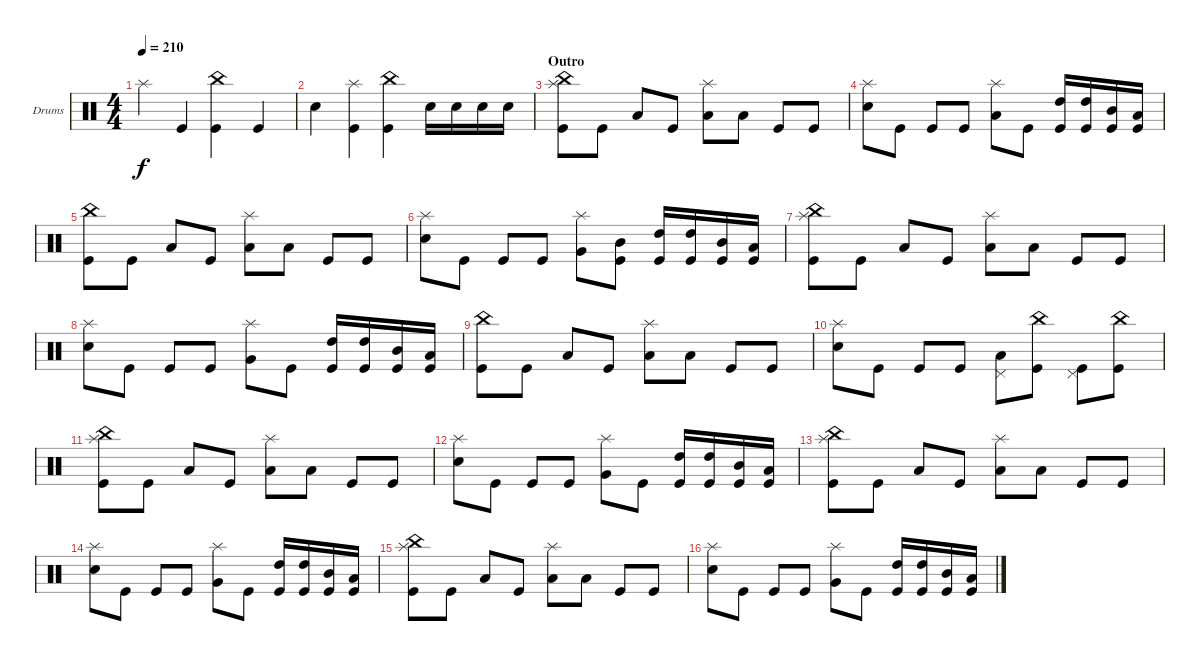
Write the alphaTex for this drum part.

\defaultSystemsLayout 4
\bracketExtendMode groupsimilarinstruments
\firstSystemTrackNameOrientation horizontal
\otherSystemsTrackNameOrientation horizontal
\track ("Drumkit" "Drums") {instrument percussion}
\staff {score}
\articulation defaults
\ts (4 4)
\tempo 210
\clef neutral
\ks c "Splash (hit)".4{dy f} "Kick (hit)".4
("Kick (hit)" "China (hit)").4 "Kick (hit)".4 |
"Snare (hit) 2".4 ("Kick (hit)" "Splash (hit)").4 ("Kick (hit)" "China (hit)").4 "Snare (hit) 2".16 "Snare (hit) 2".16 "Snare (hit) 2".16 "Snare (hit) 2".16 |
\section ("" "Outro")
("Kick (hit)" "Splash (hit)" "China (hit)").8 "Kick (hit)".8 "Low Tom (hit)".8 "Kick (hit)".8 ("Splash (hit)" "Low Tom (hit)").8 "Low Tom (hit)".8 "Kick (hit)".8 "Kick (hit)".8 |
("Snare (hit) 2" "Splash (hit)").8 "Kick (hit)".8 "Kick (hit)".8 "Kick (hit)".8 ("Splash (hit)" "Low Tom (hit)").8 "Kick (hit)".8 ("High Tom (hit)" "Kick (hit)").16 ("High Tom (hit)" "Kick (hit)").16 ("Mid Tom (hit)" "Kick (hit)").16 ("Low Tom (hit)" "Kick (hit)").16 |
("China (hit)" "Kick (hit)").8 "Kick (hit)".8 "Low Tom (hit)".8 "Kick (hit)".8 ("Splash (hit)" "Low Tom (hit)").8 "Low Tom (hit)".8 "Kick (hit)".8 "Kick (hit)".8 |
("Splash (hit)" "Snare (hit) 2").8 "Kick (hit)".8 "Kick (hit)".8 "Kick (hit)".8 ("Splash (hit)" "Very Low Tom (hit)").8 ("Kick (hit)" "Mid Tom (hit)").8 ("High Tom (hit)" "Kick (hit)").16 ("High Tom (hit)" "Kick (hit)").16 ("Mid Tom (hit)" "Kick (hit)").16 ("Low Tom (hit)" "Kick (hit)").16 |
("Kick (hit)" "Splash (hit)" "China (hit)").8 "Kick (hit)".8 "Low Tom (hit)".8 "Kick (hit)".8 ("Splash (hit)" "Low Tom (hit)").8 "Low Tom (hit)".8 "Kick (hit)".8 "Kick (hit)".8 |
("Snare (hit) 2" "Splash (hit)").8 "Kick (hit)".8 "Kick (hit)".8 "Kick (hit)".8 ("Splash (hit)" "Very Low Tom (hit)").8 "Kick (hit)".8 ("High Tom (hit)" "Kick (hit)").16 ("High Tom (hit)" "Kick (hit)").16 ("Mid Tom (hit)" "Kick (hit)").16 ("Low Tom (hit)" "Kick (hit)").16 |
("China (hit)" "Kick (hit)").8 "Kick (hit)".8 "Low Tom (hit)".8 "Kick (hit)".8 ("Splash (hit)" "Low Tom (hit)").8 "Low Tom (hit)".8 "Kick (hit)".8 "Kick (hit)".8 |
("Splash (hit)" "Snare (hit) 2").8 "Kick (hit)".8 "Kick (hit)".8 "Kick (hit)".8 ("Low Tom (hit)" "Pedal Hi-Hat (hit)").8 ("Kick (hit)" "China (hit)").8 ("Kick (hit)" "Pedal Hi-Hat (hit)").8 ("Kick (hit)" "China (hit)").8 |
("Kick (hit)" "Splash (hit)" "China (hit)").8 "Kick (hit)".8 "Low Tom (hit)".8 "Kick (hit)".8 ("Splash (hit)" "Low Tom (hit)").8 "Low Tom (hit)".8 "Kick (hit)".8 "Kick (hit)".8 |
("Snare (hit) 2" "Splash (hit)").8 "Kick (hit)".8 "Kick (hit)".8 "Kick (hit)".8 ("Splash (hit)" "Very Low Tom (hit)").8 "Kick (hit)".8 ("High Tom (hit)" "Kick (hit)").16 ("High Tom (hit)" "Kick (hit)").16 ("Mid Tom (hit)" "Kick (hit)").16 ("Low Tom (hit)" "Kick (hit)").16 |
("Kick (hit)" "Splash (hit)" "China (hit)").8 "Kick (hit)".8 "Low Tom (hit)".8 "Kick (hit)".8 ("Splash (hit)" "Low Tom (hit)").8 "Low Tom (hit)".8 "Kick (hit)".8 "Kick (hit)".8 |
("Snare (hit) 2" "Splash (hit)").8 "Kick (hit)".8 "Kick (hit)".8 "Kick (hit)".8 ("Splash (hit)" "Very Low Tom (hit)").8 "Kick (hit)".8 ("High Tom (hit)" "Kick (hit)").16 ("High Tom (hit)" "Kick (hit)").16 ("Mid Tom (hit)" "Kick (hit)").16 ("Low Tom (hit)" "Kick (hit)").16 |
("Kick (hit)" "Splash (hit)" "China (hit)").8 "Kick (hit)".8 "Low Tom (hit)".8 "Kick (hit)".8 ("Splash (hit)" "Low Tom (hit)").8 "Low Tom (hit)".8 "Kick (hit)".8 "Kick (hit)".8 |
("Snare (hit) 2" "Splash (hit)").8 "Kick (hit)".8 "Kick (hit)".8 "Kick (hit)".8 ("Splash (hit)" "Very Low Tom (hit)").8 "Kick (hit)".8 ("High Tom (hit)" "Kick (hit)").16 ("High Tom (hit)" "Kick (hit)").16 ("Mid Tom (hit)" "Kick (hit)").16 ("Low Tom (hit)" "Kick (hit)").16
